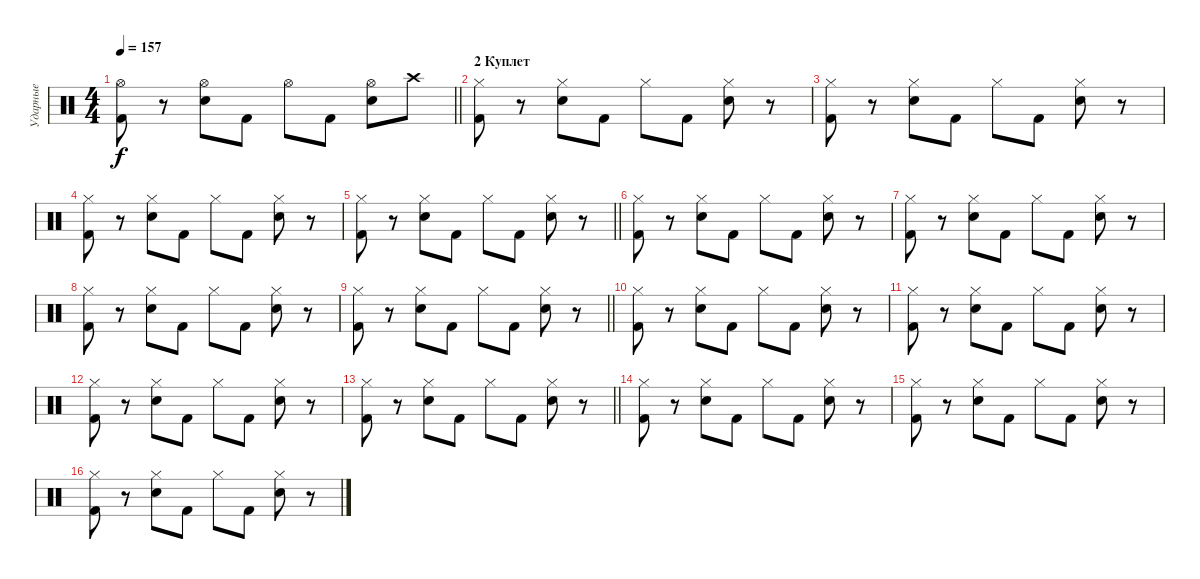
\track ("Ударные" "Ударные") {instrument percussion}
\staff {score}
\articulation defaults
\ts (4 4)
\tempo 157
\clef neutral
\barLineRight lightlight
\ks c
("Hi-Hat (open)" "Kick (hit) 2").8{dy f} r.8 ("Hi-Hat (open)" "Snare (hit) 2").8 "Kick (hit) 2".8 "Hi-Hat (open)".8 "Kick (hit) 2".8 ("Hi-Hat (open)" "Snare (hit) 2").8 "Crash high (hit)".8 |
\section ("" "2 Куплет")
("Hi-Hat (closed)" "Kick (hit) 2").8 r.8 ("Hi-Hat (closed)" "Snare (hit) 2").8 "Kick (hit) 2".8 "Hi-Hat (closed)".8 "Kick (hit) 2".8 ("Hi-Hat (closed)" "Snare (hit) 2").8 r.8 |
("Hi-Hat (closed)" "Kick (hit) 2").8 r.8 ("Hi-Hat (closed)" "Snare (hit) 2").8 "Kick (hit) 2".8 "Hi-Hat (closed)".8 "Kick (hit) 2".8 ("Hi-Hat (closed)" "Snare (hit) 2").8 r.8 |
("Hi-Hat (closed)" "Kick (hit) 2").8 r.8 ("Hi-Hat (closed)" "Snare (hit) 2").8 "Kick (hit) 2".8 "Hi-Hat (closed)".8 "Kick (hit) 2".8 ("Hi-Hat (closed)" "Snare (hit) 2").8 r.8 |
\barLineRight lightlight
("Hi-Hat (closed)" "Kick (hit) 2").8 r.8 ("Hi-Hat (closed)" "Snare (hit) 2").8 "Kick (hit) 2".8 "Hi-Hat (closed)".8 "Kick (hit) 2".8 ("Hi-Hat (closed)" "Snare (hit) 2").8 r.8 |
("Hi-Hat (closed)" "Kick (hit) 2").8 r.8 ("Hi-Hat (closed)" "Snare (hit) 2").8 "Kick (hit) 2".8 "Hi-Hat (closed)".8 "Kick (hit) 2".8 ("Hi-Hat (closed)" "Snare (hit) 2").8 r.8 |
("Hi-Hat (closed)" "Kick (hit) 2").8 r.8 ("Hi-Hat (closed)" "Snare (hit) 2").8 "Kick (hit) 2".8 "Hi-Hat (closed)".8 "Kick (hit) 2".8 ("Hi-Hat (closed)" "Snare (hit) 2").8 r.8 |
("Hi-Hat (closed)" "Kick (hit) 2").8 r.8 ("Hi-Hat (closed)" "Snare (hit) 2").8 "Kick (hit) 2".8 "Hi-Hat (closed)".8 "Kick (hit) 2".8 ("Hi-Hat (closed)" "Snare (hit) 2").8 r.8 |
\barLineRight lightlight
("Hi-Hat (closed)" "Kick (hit) 2").8 r.8 ("Hi-Hat (closed)" "Snare (hit) 2").8 "Kick (hit) 2".8 "Hi-Hat (closed)".8 "Kick (hit) 2".8 ("Hi-Hat (closed)" "Snare (hit) 2").8 r.8 |
("Hi-Hat (closed)" "Kick (hit) 2").8 r.8 ("Hi-Hat (closed)" "Snare (hit) 2").8 "Kick (hit) 2".8 "Hi-Hat (closed)".8 "Kick (hit) 2".8 ("Hi-Hat (closed)" "Snare (hit) 2").8 r.8 |
("Hi-Hat (closed)" "Kick (hit) 2").8 r.8 ("Hi-Hat (closed)" "Snare (hit) 2").8 "Kick (hit) 2".8 "Hi-Hat (closed)".8 "Kick (hit) 2".8 ("Hi-Hat (closed)" "Snare (hit) 2").8 r.8 |
("Hi-Hat (closed)" "Kick (hit) 2").8 r.8 ("Hi-Hat (closed)" "Snare (hit) 2").8 "Kick (hit) 2".8 "Hi-Hat (closed)".8 "Kick (hit) 2".8 ("Hi-Hat (closed)" "Snare (hit) 2").8 r.8 |
\barLineRight lightlight
("Hi-Hat (closed)" "Kick (hit) 2").8 r.8 ("Hi-Hat (closed)" "Snare (hit) 2").8 "Kick (hit) 2".8 "Hi-Hat (closed)".8 "Kick (hit) 2".8 ("Hi-Hat (closed)" "Snare (hit) 2").8 r.8 |
("Hi-Hat (closed)" "Kick (hit) 2").8 r.8 ("Hi-Hat (closed)" "Snare (hit) 2").8 "Kick (hit) 2".8 "Hi-Hat (closed)".8 "Kick (hit) 2".8 ("Hi-Hat (closed)" "Snare (hit) 2").8 r.8 |
("Hi-Hat (closed)" "Kick (hit) 2").8 r.8 ("Hi-Hat (closed)" "Snare (hit) 2").8 "Kick (hit) 2".8 "Hi-Hat (closed)".8 "Kick (hit) 2".8 ("Hi-Hat (closed)" "Snare (hit) 2").8 r.8 |
("Hi-Hat (closed)" "Kick (hit) 2").8 r.8 ("Hi-Hat (closed)" "Snare (hit) 2").8 "Kick (hit) 2".8 "Hi-Hat (closed)".8 "Kick (hit) 2".8 ("Hi-Hat (closed)" "Snare (hit) 2").8 r.8
